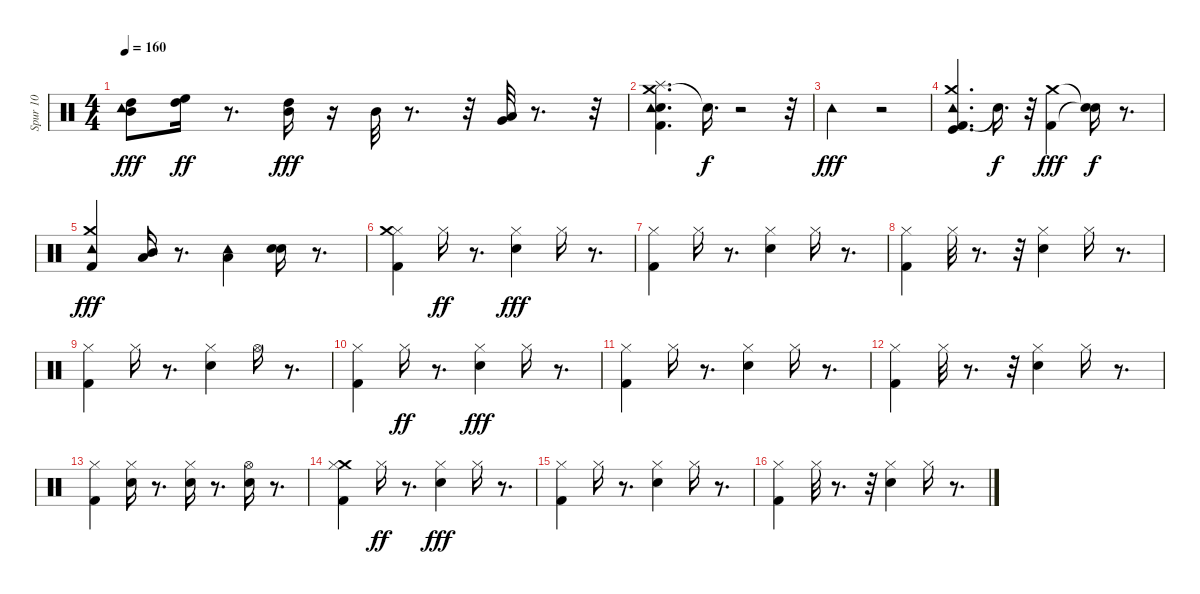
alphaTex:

\track ("Spur 10" "Spur 10") {instrument percussion}
\staff {score}
\articulation defaults
\ts (4 4)
\tempo 160
\clef neutral
\ks c
("High Tom (hit)" "Mid Tom (hit)" "Tambourine (hit)").8{dy fff} ("High Tom (hit)" "High Floor Tom (hit)").16{dy ff} r.8{d} ("Mid Tom (hit)" "High Tom (hit)").16{dy fff} r.16 "Mid Tom (hit)".32 r.8{d} r.32 ("Low Tom (hit)" "Very Low Tom (hit)").32 r.8{d} r.32 |
("Crash medium (hit)" "Splash (hit)" "Kick (hit) 2" "Snare (hit) 2" "Tambourine (hit)").4{d} "Snare (hit)"{t}.16{d dy f} r.2 r.32 |
"Tambourine (hit)".2{dy fff} r.2 |
("Kick (hit) 2" "Kick (hit)" "Crash medium (hit)" "Tambourine (hit)").4{d} "Snare (hit)"{t}.16{d dy f} r.32 ("Kick (hit) 2" "Crash medium (hit)").4{dy fff} ("Snare (hit)"{t} "Snare (hit)"{t}).16{dy f} r.8{d} |
("Kick (hit) 2" "Crash medium (hit)" "Tambourine (hit)").4{dy fff} ("Mid Tom (hit)" "Low Tom (hit)").16 r.8{d} ("Low Floor Tom (hit)" "Tambourine (hit)").4 ("Snare (hit) 2" "Electric Snare (hit)").16 r.8{d} |
("Kick (hit) 2" "Hi-Hat (closed)" "Crash medium (hit)").4 "Hi-Hat (closed)".16{dy ff} r.8{d} ("Snare (hit) 2" "Hi-Hat (closed)").4{dy fff} "Hi-Hat (closed)".16 r.8{d} |
("Kick (hit) 2" "Hi-Hat (closed)").4 "Hi-Hat (closed)".16 r.8{d} ("Snare (hit) 2" "Hi-Hat (closed)").4 "Hi-Hat (closed)".16 r.8{d} |
("Kick (hit) 2" "Hi-Hat (closed)").4 "Hi-Hat (closed)".32 r.8{d} r.32 ("Snare (hit) 2" "Hi-Hat (closed)").4 "Hi-Hat (closed)".16 r.8{d} |
("Kick (hit) 2" "Hi-Hat (closed)").4 "Hi-Hat (closed)".16 r.8{d} ("Snare (hit) 2" "Hi-Hat (closed)").4 "Hi-Hat (open)".16 r.8{d} |
("Kick (hit) 2" "Hi-Hat (closed)").4 "Hi-Hat (closed)".16{dy ff} r.8{d} ("Snare (hit) 2" "Hi-Hat (closed)").4{dy fff} "Hi-Hat (closed)".16 r.8{d} |
("Kick (hit) 2" "Hi-Hat (closed)").4 "Hi-Hat (closed)".16 r.8{d} ("Snare (hit) 2" "Hi-Hat (closed)").4 "Hi-Hat (closed)".16 r.8{d} |
("Kick (hit) 2" "Hi-Hat (closed)").4 "Hi-Hat (closed)".32 r.8{d} r.32 ("Snare (hit) 2" "Hi-Hat (closed)").4 "Hi-Hat (closed)".16 r.8{d} |
("Kick (hit) 2" "Hi-Hat (closed)").4 ("Hi-Hat (closed)" "Snare (hit) 2").16 r.8{d} ("Hi-Hat (closed)" "Snare (hit) 2").16 r.8{d} ("Hi-Hat (open)" "Snare (hit) 2").16 r.8{d} |
("Crash medium (hit)" "Kick (hit) 2" "Hi-Hat (closed)").4 "Hi-Hat (closed)".16{dy ff} r.8{d} ("Snare (hit) 2" "Hi-Hat (closed)").4{dy fff} "Hi-Hat (closed)".16 r.8{d} |
("Kick (hit) 2" "Hi-Hat (closed)").4 "Hi-Hat (closed)".16 r.8{d} ("Snare (hit) 2" "Hi-Hat (closed)").4 "Hi-Hat (closed)".16 r.8{d} |
("Kick (hit) 2" "Hi-Hat (closed)").4 "Hi-Hat (closed)".32 r.8{d} r.32 ("Snare (hit) 2" "Hi-Hat (closed)").4 "Hi-Hat (closed)".16 r.8{d}
